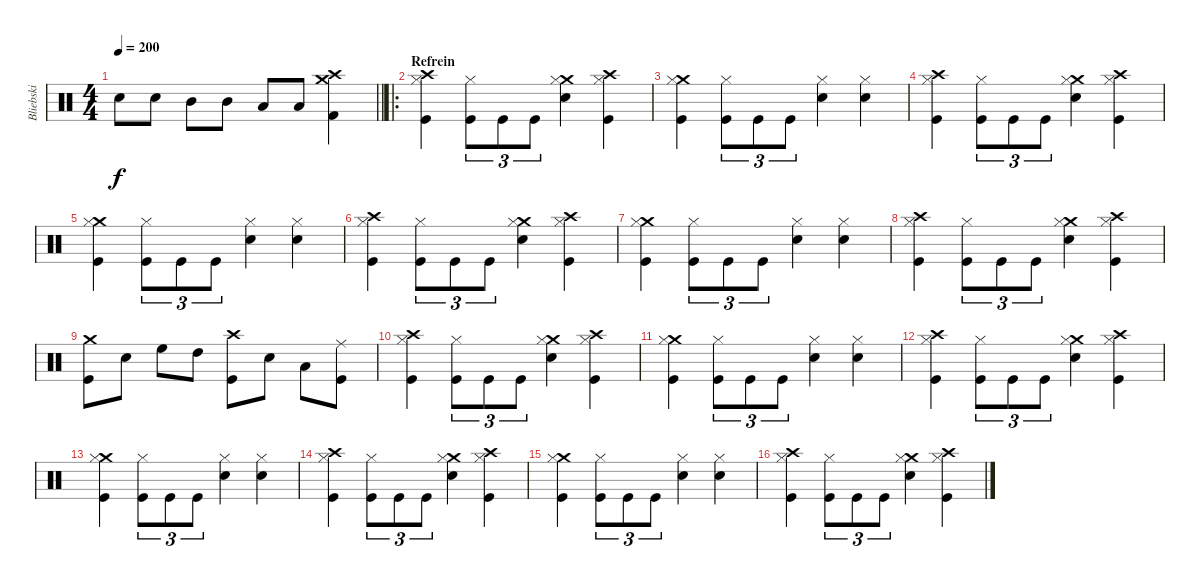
\track ("Bliebski" "Bliebski") {instrument percussion}
\staff {score}
\articulation defaults
\ts (4 4)
\tempo 200
\clef neutral
\barLineRight lightlight
\ks c "Snare (hit) 2".8{dy f} "Snare (hit) 2".8 "Mid Tom (hit)".8 "Mid Tom (hit)".8 "Low Tom (hit)".8 "Low Tom (hit)".8
("Kick (hit) 2" "Crash medium (hit)" "Crash high (hit)").4 |
\ro
\section ("" "Refrein")
("Crash high (hit)" "Hi-Hat (closed)" "Kick (hit)").4 ("Hi-Hat (closed)" "Kick (hit)").8{tu (3 2)} "Kick (hit)".8{tu (3 2)} "Kick (hit)".8{tu (3 2)} ("Crash medium (hit)" "Hi-Hat (closed)" "Snare (hit) 2").4 ("Crash high (hit)" "Hi-Hat (closed)" "Kick (hit)").4 |
("Crash medium (hit)" "Hi-Hat (closed)" "Kick (hit)").4 ("Hi-Hat (closed)" "Kick (hit)").8{tu (3 2)} "Kick (hit)".8{tu (3 2)} "Kick (hit)".8{tu (3 2)} ("Hi-Hat (closed)" "Snare (hit) 2").4 ("Hi-Hat (closed)" "Snare (hit) 2").4 |
("Crash high (hit)" "Hi-Hat (closed)" "Kick (hit)").4 ("Hi-Hat (closed)" "Kick (hit)").8{tu (3 2)} "Kick (hit)".8{tu (3 2)} "Kick (hit)".8{tu (3 2)} ("Crash medium (hit)" "Hi-Hat (closed)" "Snare (hit) 2").4 ("Crash high (hit)" "Hi-Hat (closed)" "Kick (hit)").4 |
("Crash medium (hit)" "Hi-Hat (closed)" "Kick (hit)").4 ("Hi-Hat (closed)" "Kick (hit)").8{tu (3 2)} "Kick (hit)".8{tu (3 2)} "Kick (hit)".8{tu (3 2)} ("Hi-Hat (closed)" "Snare (hit) 2").4 ("Hi-Hat (closed)" "Snare (hit) 2").4 |
("Crash high (hit)" "Hi-Hat (closed)" "Kick (hit)").4 ("Hi-Hat (closed)" "Kick (hit)").8{tu (3 2)} "Kick (hit)".8{tu (3 2)} "Kick (hit)".8{tu (3 2)} ("Crash medium (hit)" "Hi-Hat (closed)" "Snare (hit) 2").4 ("Crash high (hit)" "Hi-Hat (closed)" "Kick (hit)").4 |
("Crash medium (hit)" "Hi-Hat (closed)" "Kick (hit)").4 ("Hi-Hat (closed)" "Kick (hit)").8{tu (3 2)} "Kick (hit)".8{tu (3 2)} "Kick (hit)".8{tu (3 2)} ("Hi-Hat (closed)" "Snare (hit) 2").4 ("Hi-Hat (closed)" "Snare (hit) 2").4 |
("Crash high (hit)" "Hi-Hat (closed)" "Kick (hit)").4 ("Hi-Hat (closed)" "Kick (hit)").8{tu (3 2)} "Kick (hit)".8{tu (3 2)} "Kick (hit)".8{tu (3 2)} ("Crash medium (hit)" "Hi-Hat (closed)" "Snare (hit) 2").4 ("Crash high (hit)" "Hi-Hat (closed)" "Kick (hit)").4 |
("Crash medium (hit)" "Kick (hit)").8 "Snare (hit) 2".8 "High Floor Tom (hit)".8 "High Tom (hit)".8 ("Crash high (hit)" "Kick (hit)").8 "Snare (hit) 2".8 "Low Tom (hit)".8 ("Ride (middle)" "Kick (hit)").8 |
("Crash high (hit)" "Hi-Hat (closed)" "Kick (hit)").4 ("Hi-Hat (closed)" "Kick (hit)").8{tu (3 2)} "Kick (hit)".8{tu (3 2)} "Kick (hit)".8{tu (3 2)} ("Crash medium (hit)" "Hi-Hat (closed)" "Snare (hit) 2").4 ("Crash high (hit)" "Hi-Hat (closed)" "Kick (hit)").4 |
("Crash medium (hit)" "Hi-Hat (closed)" "Kick (hit)").4 ("Hi-Hat (closed)" "Kick (hit)").8{tu (3 2)} "Kick (hit)".8{tu (3 2)} "Kick (hit)".8{tu (3 2)} ("Hi-Hat (closed)" "Snare (hit) 2").4 ("Hi-Hat (closed)" "Snare (hit) 2").4 |
("Crash high (hit)" "Hi-Hat (closed)" "Kick (hit)").4 ("Hi-Hat (closed)" "Kick (hit)").8{tu (3 2)} "Kick (hit)".8{tu (3 2)} "Kick (hit)".8{tu (3 2)} ("Crash medium (hit)" "Hi-Hat (closed)" "Snare (hit) 2").4 ("Crash high (hit)" "Hi-Hat (closed)" "Kick (hit)").4 |
("Crash medium (hit)" "Hi-Hat (closed)" "Kick (hit)").4 ("Hi-Hat (closed)" "Kick (hit)").8{tu (3 2)} "Kick (hit)".8{tu (3 2)} "Kick (hit)".8{tu (3 2)} ("Hi-Hat (closed)" "Snare (hit) 2").4 ("Hi-Hat (closed)" "Snare (hit) 2").4 |
("Crash high (hit)" "Hi-Hat (closed)" "Kick (hit)").4 ("Hi-Hat (closed)" "Kick (hit)").8{tu (3 2)} "Kick (hit)".8{tu (3 2)} "Kick (hit)".8{tu (3 2)} ("Crash medium (hit)" "Hi-Hat (closed)" "Snare (hit) 2").4 ("Crash high (hit)" "Hi-Hat (closed)" "Kick (hit)").4 |
("Crash medium (hit)" "Hi-Hat (closed)" "Kick (hit)").4 ("Hi-Hat (closed)" "Kick (hit)").8{tu (3 2)} "Kick (hit)".8{tu (3 2)} "Kick (hit)".8{tu (3 2)} ("Hi-Hat (closed)" "Snare (hit) 2").4 ("Hi-Hat (closed)" "Snare (hit) 2").4 |
("Crash high (hit)" "Hi-Hat (closed)" "Kick (hit)").4 ("Hi-Hat (closed)" "Kick (hit)").8{tu (3 2)} "Kick (hit)".8{tu (3 2)} "Kick (hit)".8{tu (3 2)} ("Crash medium (hit)" "Hi-Hat (closed)" "Snare (hit) 2").4 ("Crash high (hit)" "Hi-Hat (closed)" "Kick (hit)").4
